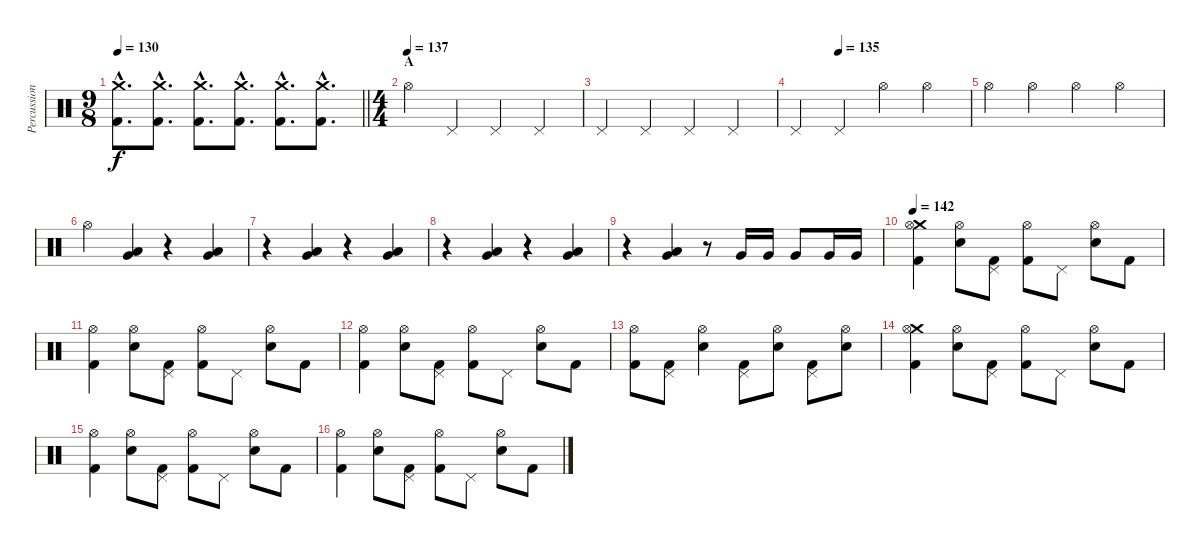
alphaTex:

\track ("Percussion" "Percussion") {instrument percussion}
\staff {score}
\articulation defaults
\ts (9 8)
\tempo 130
\clef neutral
\barLineRight lightlight
\ks c
("Crash medium (hit)"{hac} "Kick (hit) 2"{hac}).8{d dy f} ("Crash medium (hit)"{hac} "Kick (hit) 2"{hac}).8{d} ("Crash medium (hit)"{hac} "Kick (hit) 2"{hac}).8{d} ("Crash medium (hit)"{hac} "Kick (hit) 2"{hac}).8{d} ("Crash medium (hit)"{hac} "Kick (hit) 2"{hac}).8{d} ("Crash medium (hit)"{hac} "Kick (hit) 2"{hac}).8{d} |
\ts (4 4)
\section ("" "A")
\tempo (137)
"Hi-Hat (open)".4 "Pedal Hi-Hat (hit)".4 "Pedal Hi-Hat (hit)".4 "Pedal Hi-Hat (hit)".4 |
"Pedal Hi-Hat (hit)".4 "Pedal Hi-Hat (hit)".4 "Pedal Hi-Hat (hit)".4 "Pedal Hi-Hat (hit)".4 |
\tempo (135 0.25)
"Pedal Hi-Hat (hit)".4 "Pedal Hi-Hat (hit)".4 "Hi-Hat (open)".4{volume 10} "Hi-Hat (open)".4{volume 13} |
"Hi-Hat (open)".4 "Hi-Hat (open)".4 "Hi-Hat (open)".4 "Hi-Hat (open)".4 |
"Hi-Hat (open)".4 ("Very Low Tom (hit)" "Low Floor Tom (hit)").4{volume 13} r.4 ("Very Low Tom (hit)" "Low Floor Tom (hit)").4 |
r.4 ("Very Low Tom (hit)" "Low Floor Tom (hit)").4 r.4 ("Very Low Tom (hit)" "Low Floor Tom (hit)").4 |
r.4 ("Very Low Tom (hit)" "Low Floor Tom (hit)").4 r.4 ("Very Low Tom (hit)" "Low Floor Tom (hit)").4 |
r.4 ("Very Low Tom (hit)" "Low Floor Tom (hit)").4 r.8 "Very Low Tom (hit)".16 "Very Low Tom (hit)".16 "Very Low Tom (hit)".8 "Very Low Tom (hit)".16 "Very Low Tom (hit)".16 |
\tempo 142
("Crash medium (hit)" "Hi-Hat (open)" "Kick (hit) 2").4 ("Hi-Hat (open)" "Snare (hit) 2").8 ("Pedal Hi-Hat (hit)" "Kick (hit) 2").8 ("Hi-Hat (open)" "Kick (hit) 2").8 "Pedal Hi-Hat (hit)".8 ("Hi-Hat (open)" "Snare (hit) 2").8 "Kick (hit) 2".8 |
("Hi-Hat (open)" "Kick (hit) 2").4 ("Hi-Hat (open)" "Snare (hit) 2").8 ("Pedal Hi-Hat (hit)" "Kick (hit) 2").8 ("Hi-Hat (open)" "Kick (hit) 2").8 "Pedal Hi-Hat (hit)".8 ("Hi-Hat (open)" "Snare (hit) 2").8 "Kick (hit) 2".8 |
("Hi-Hat (open)" "Kick (hit) 2").4 ("Hi-Hat (open)" "Snare (hit) 2").8 ("Pedal Hi-Hat (hit)" "Kick (hit) 2").8 ("Hi-Hat (open)" "Kick (hit) 2").8 "Pedal Hi-Hat (hit)".8 ("Hi-Hat (open)" "Snare (hit) 2").8 "Kick (hit) 2".8 |
("Hi-Hat (open)" "Kick (hit) 2").8 ("Pedal Hi-Hat (hit)" "Kick (hit) 2").8 ("Hi-Hat (open)" "Snare (hit) 2").4 ("Pedal Hi-Hat (hit)" "Kick (hit) 2").8 ("Hi-Hat (open)" "Snare (hit) 2").8 ("Pedal Hi-Hat (hit)" "Kick (hit) 2").8 ("Hi-Hat (open)" "Snare (hit) 2").8 |
("Crash medium (hit)" "Hi-Hat (open)" "Kick (hit) 2").4 ("Hi-Hat (open)" "Snare (hit) 2").8 ("Pedal Hi-Hat (hit)" "Kick (hit) 2").8 ("Hi-Hat (open)" "Kick (hit) 2").8 "Pedal Hi-Hat (hit)".8 ("Hi-Hat (open)" "Snare (hit) 2").8 "Kick (hit) 2".8 |
("Hi-Hat (open)" "Kick (hit) 2").4 ("Hi-Hat (open)" "Snare (hit) 2").8 ("Pedal Hi-Hat (hit)" "Kick (hit) 2").8 ("Hi-Hat (open)" "Kick (hit) 2").8 "Pedal Hi-Hat (hit)".8 ("Hi-Hat (open)" "Snare (hit) 2").8 "Kick (hit) 2".8 |
("Hi-Hat (open)" "Kick (hit) 2").4 ("Hi-Hat (open)" "Snare (hit) 2").8 ("Pedal Hi-Hat (hit)" "Kick (hit) 2").8 ("Hi-Hat (open)" "Kick (hit) 2").8 "Pedal Hi-Hat (hit)".8 ("Hi-Hat (open)" "Snare (hit) 2").8 "Kick (hit) 2".8
